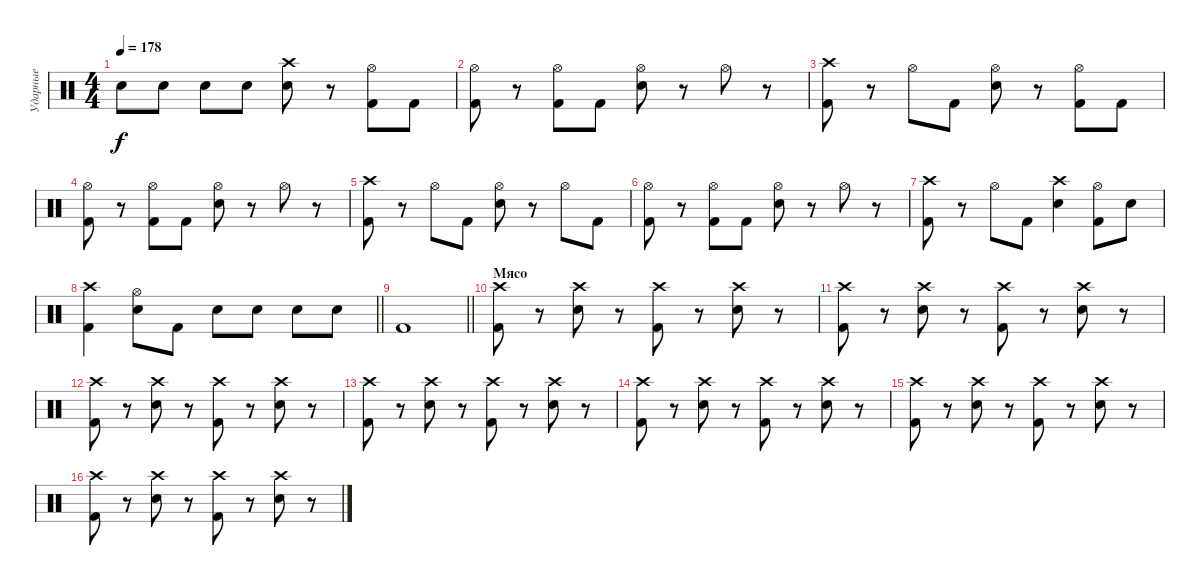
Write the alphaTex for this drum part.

\track ("Ударные" "Ударные") {instrument percussion}
\staff {score}
\articulation defaults
\ts (4 4)
\tempo 178
\clef neutral
\ks c "Snare (hit) 2".8{dy f} "Snare (hit) 2".8 "Snare (hit) 2".8 "Snare (hit) 2".8
("Crash high (hit)" "Snare (hit) 2").8 r.8 ("Hi-Hat (open)" "Kick (hit) 2").8 "Kick (hit) 2".8 |
("Hi-Hat (open)" "Kick (hit) 2").8 r.8 ("Hi-Hat (open)" "Kick (hit) 2").8 "Kick (hit) 2".8 ("Hi-Hat (open)" "Snare (hit) 2").8 r.8 "Hi-Hat (open)".8 r.8 |
("Crash high (hit)" "Kick (hit) 2").8 r.8 "Hi-Hat (open)".8 "Kick (hit) 2".8 ("Hi-Hat (open)" "Snare (hit) 2").8 r.8 ("Hi-Hat (open)" "Kick (hit) 2").8 "Kick (hit) 2".8 |
("Hi-Hat (open)" "Kick (hit) 2").8 r.8 ("Hi-Hat (open)" "Kick (hit) 2").8 "Kick (hit) 2".8 ("Hi-Hat (open)" "Snare (hit) 2").8 r.8 "Hi-Hat (open)".8 r.8 |
("Crash high (hit)" "Kick (hit) 2").8 r.8 "Hi-Hat (open)".8 "Kick (hit) 2".8 ("Hi-Hat (open)" "Snare (hit) 2").8 r.8 "Hi-Hat (open)".8 "Kick (hit) 2".8 |
("Hi-Hat (open)" "Kick (hit) 2").8 r.8 ("Hi-Hat (open)" "Kick (hit) 2").8 "Kick (hit) 2".8 ("Hi-Hat (open)" "Snare (hit) 2").8 r.8 "Hi-Hat (open)".8 r.8 |
("Crash high (hit)" "Kick (hit) 2").8 r.8 "Hi-Hat (open)".8 "Kick (hit) 2".8 ("Crash high (hit)" "Snare (hit) 2").4 ("Hi-Hat (open)" "Kick (hit) 2").8 "Snare (hit) 2".8 |
\barLineRight lightlight
("Crash high (hit)" "Kick (hit) 2").4 ("Hi-Hat (open)" "Snare (hit) 2").8 "Kick (hit) 2".8 "Snare (hit) 2".8 "Snare (hit) 2".8 "Snare (hit) 2".8 "Snare (hit) 2".8 |
\barLineRight lightlight "Kick (hit) 2".1
|
\section ("" "Мясо")
("Crash high (hit)" "Kick (hit) 2").8 r.8 ("Crash high (hit)" "Snare (hit) 2").8 r.8 ("Crash high (hit)" "Kick (hit) 2").8 r.8 ("Crash high (hit)" "Snare (hit) 2").8 r.8 |
("Crash high (hit)" "Kick (hit) 2").8 r.8 ("Crash high (hit)" "Snare (hit) 2").8 r.8 ("Crash high (hit)" "Kick (hit) 2").8 r.8 ("Crash high (hit)" "Snare (hit) 2").8 r.8 |
("Crash high (hit)" "Kick (hit) 2").8 r.8 ("Crash high (hit)" "Snare (hit) 2").8 r.8 ("Crash high (hit)" "Kick (hit) 2").8 r.8 ("Crash high (hit)" "Snare (hit) 2").8 r.8 |
("Crash high (hit)" "Kick (hit) 2").8 r.8 ("Crash high (hit)" "Snare (hit) 2").8 r.8 ("Crash high (hit)" "Kick (hit) 2").8 r.8 ("Crash high (hit)" "Snare (hit) 2").8 r.8 |
("Crash high (hit)" "Kick (hit) 2").8 r.8 ("Crash high (hit)" "Snare (hit) 2").8 r.8 ("Crash high (hit)" "Kick (hit) 2").8 r.8 ("Crash high (hit)" "Snare (hit) 2").8 r.8 |
("Crash high (hit)" "Kick (hit) 2").8 r.8 ("Crash high (hit)" "Snare (hit) 2").8 r.8 ("Crash high (hit)" "Kick (hit) 2").8 r.8 ("Crash high (hit)" "Snare (hit) 2").8 r.8 |
("Crash high (hit)" "Kick (hit) 2").8 r.8 ("Crash high (hit)" "Snare (hit) 2").8 r.8 ("Crash high (hit)" "Kick (hit) 2").8 r.8 ("Crash high (hit)" "Snare (hit) 2").8 r.8
